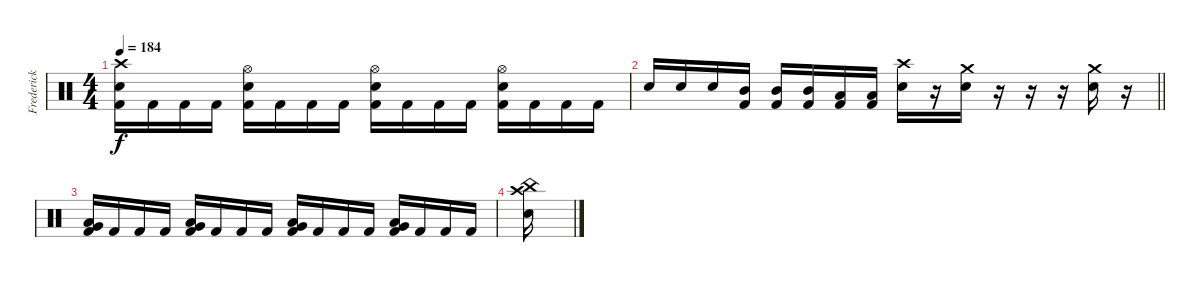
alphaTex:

\track ("Frederick Ehmke" "Frederick ") {instrument percussion}
\staff {score}
\articulation defaults
\ts (4 4)
\tempo 184
\clef neutral
\ks c
("Electric Snare (hit)" "Kick (hit) 2" "Crash high (hit)").16{dy f} "Kick (hit) 2".16 "Kick (hit) 2".16 "Kick (hit) 2".16 ("Electric Snare (hit)" "Kick (hit) 2" "Hi-Hat (open)").16 "Kick (hit) 2".16 "Kick (hit) 2".16 "Kick (hit) 2".16 ("Electric Snare (hit)" "Kick (hit) 2" "Hi-Hat (open)").16 "Kick (hit) 2".16 "Kick (hit) 2".16 "Kick (hit) 2".16 ("Electric Snare (hit)" "Kick (hit) 2" "Hi-Hat (open)").16 "Kick (hit) 2".16 "Kick (hit) 2".16 "Kick (hit) 2".16 |
\barLineRight lightlight "Electric Snare (hit)".16 "Electric Snare (hit)".16 "Electric Snare (hit)".16
("Kick (hit) 2" "Mid Tom (hit)").16 ("Kick (hit) 2" "Mid Tom (hit)").16 ("Kick (hit) 2" "Mid Tom (hit)").16 ("Kick (hit) 2" "Low Tom (hit)").16 ("Kick (hit) 2" "Low Tom (hit)").16 ("Electric Snare (hit)" "Crash high (hit)").16 r.16 ("Electric Snare (hit)" "Crash medium (hit)").16 r.16 r.16 r.16 ("Electric Snare (hit)" "Crash medium (hit)").16 r.16 |
("Kick (hit) 2" "Very Low Tom (hit)" "Low Tom (hit)").16 "Kick (hit) 2".16 "Kick (hit) 2".16 "Kick (hit) 2".16 ("Kick (hit) 2" "Very Low Tom (hit)" "Low Tom (hit)").16 "Kick (hit) 2".16 "Kick (hit) 2".16 "Kick (hit) 2".16 ("Kick (hit) 2" "Very Low Tom (hit)" "Low Tom (hit)").16 "Kick (hit) 2".16 "Kick (hit) 2".16 "Kick (hit) 2".16 ("Kick (hit) 2" "Very Low Tom (hit)" "Low Tom (hit)").16 "Kick (hit) 2".16 "Kick (hit) 2".16 "Kick (hit) 2".16 |
("Electric Snare (hit)" "Crash high (hit)" "China (hit)").16
